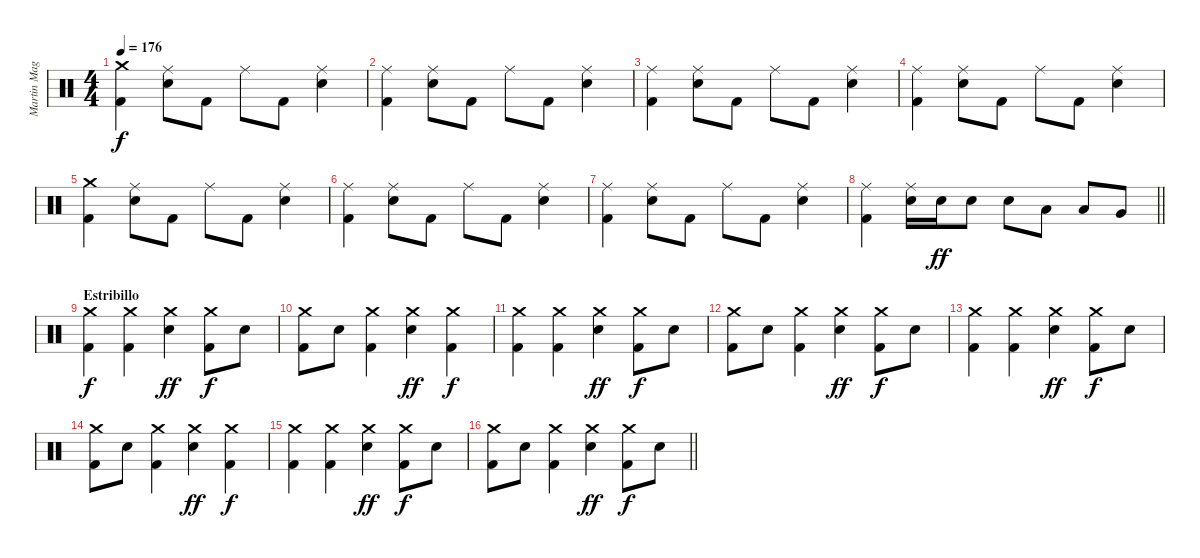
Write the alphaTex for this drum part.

\track ("Martin Magliano" "Martin Mag") {instrument percussion}
\staff {score}
\articulation defaults
\ts (4 4)
\tempo 176
\clef neutral
\ks c
("Crash medium (hit)" "Kick (hit) 2").4{dy f} ("Ride (middle)" "Snare (hit) 2").8 "Kick (hit) 2".8 "Ride (middle)".8 "Kick (hit) 2".8 ("Ride (middle)" "Snare (hit) 2").4 |
("Ride (middle)" "Kick (hit) 2").4 ("Ride (middle)" "Snare (hit) 2").8 "Kick (hit) 2".8 "Ride (middle)".8 "Kick (hit) 2".8 ("Ride (middle)" "Snare (hit) 2").4 |
("Ride (middle)" "Kick (hit) 2").4 ("Ride (middle)" "Snare (hit) 2").8 "Kick (hit) 2".8 "Ride (middle)".8 "Kick (hit) 2".8 ("Ride (middle)" "Snare (hit) 2").4 |
("Ride (middle)" "Kick (hit) 2").4 ("Ride (middle)" "Snare (hit) 2").8 "Kick (hit) 2".8 "Ride (middle)".8 "Kick (hit) 2".8 ("Ride (middle)" "Snare (hit) 2").4 |
("Crash medium (hit)" "Kick (hit) 2").4 ("Ride (middle)" "Snare (hit) 2").8 "Kick (hit) 2".8 "Ride (middle)".8 "Kick (hit) 2".8 ("Ride (middle)" "Snare (hit) 2").4 |
("Ride (middle)" "Kick (hit) 2").4 ("Ride (middle)" "Snare (hit) 2").8 "Kick (hit) 2".8 "Ride (middle)".8 "Kick (hit) 2".8 ("Ride (middle)" "Snare (hit) 2").4 |
("Ride (middle)" "Kick (hit) 2").4 ("Ride (middle)" "Snare (hit) 2").8 "Kick (hit) 2".8 "Ride (middle)".8 "Kick (hit) 2".8 ("Ride (middle)" "Snare (hit) 2").4 |
\barLineRight lightlight
("Ride (middle)" "Kick (hit) 2").4 ("Ride (middle)" "Snare (hit) 2").16 "Snare (hit) 2".16{dy ff} "Snare (hit) 2".8 "Snare (hit) 2".8 "Low Tom (hit)".8 "Low Tom (hit)".8 "Very Low Tom (hit)".8 |
\section ("" "Estribillo")
("Crash medium (hit)" "Kick (hit) 2").4{dy f} ("Crash medium (hit)" "Kick (hit) 2").4 ("Crash medium (hit)" "Snare (hit) 2").4{dy ff} ("Crash medium (hit)" "Kick (hit) 2").8{dy f} "Snare (hit) 2".8 |
("Crash medium (hit)" "Kick (hit) 2").8 "Snare (hit) 2".8 ("Crash medium (hit)" "Kick (hit) 2").4 ("Crash medium (hit)" "Snare (hit) 2").4{dy ff} ("Crash medium (hit)" "Kick (hit) 2").4{dy f} |
("Crash medium (hit)" "Kick (hit) 2").4 ("Crash medium (hit)" "Kick (hit) 2").4 ("Crash medium (hit)" "Snare (hit) 2").4{dy ff} ("Crash medium (hit)" "Kick (hit) 2").8{dy f} "Snare (hit) 2".8 |
("Crash medium (hit)" "Kick (hit) 2").8 "Snare (hit) 2".8 ("Crash medium (hit)" "Kick (hit) 2").4 ("Crash medium (hit)" "Snare (hit) 2").4{dy ff} ("Crash medium (hit)" "Kick (hit) 2").8{dy f} "Snare (hit) 2".8 |
("Crash medium (hit)" "Kick (hit) 2").4 ("Crash medium (hit)" "Kick (hit) 2").4 ("Crash medium (hit)" "Snare (hit) 2").4{dy ff} ("Crash medium (hit)" "Kick (hit) 2").8{dy f} "Snare (hit) 2".8 |
("Crash medium (hit)" "Kick (hit) 2").8 "Snare (hit) 2".8 ("Crash medium (hit)" "Kick (hit) 2").4 ("Crash medium (hit)" "Snare (hit) 2").4{dy ff} ("Crash medium (hit)" "Kick (hit) 2").4{dy f} |
("Crash medium (hit)" "Kick (hit) 2").4 ("Crash medium (hit)" "Kick (hit) 2").4 ("Crash medium (hit)" "Snare (hit) 2").4{dy ff} ("Crash medium (hit)" "Kick (hit) 2").8{dy f} "Snare (hit) 2".8 |
\barLineRight lightlight
("Crash medium (hit)" "Kick (hit) 2").8 "Snare (hit) 2".8 ("Crash medium (hit)" "Kick (hit) 2").4 ("Crash medium (hit)" "Snare (hit) 2").4{dy ff} ("Crash medium (hit)" "Kick (hit) 2").8{dy f} "Snare (hit) 2".8
